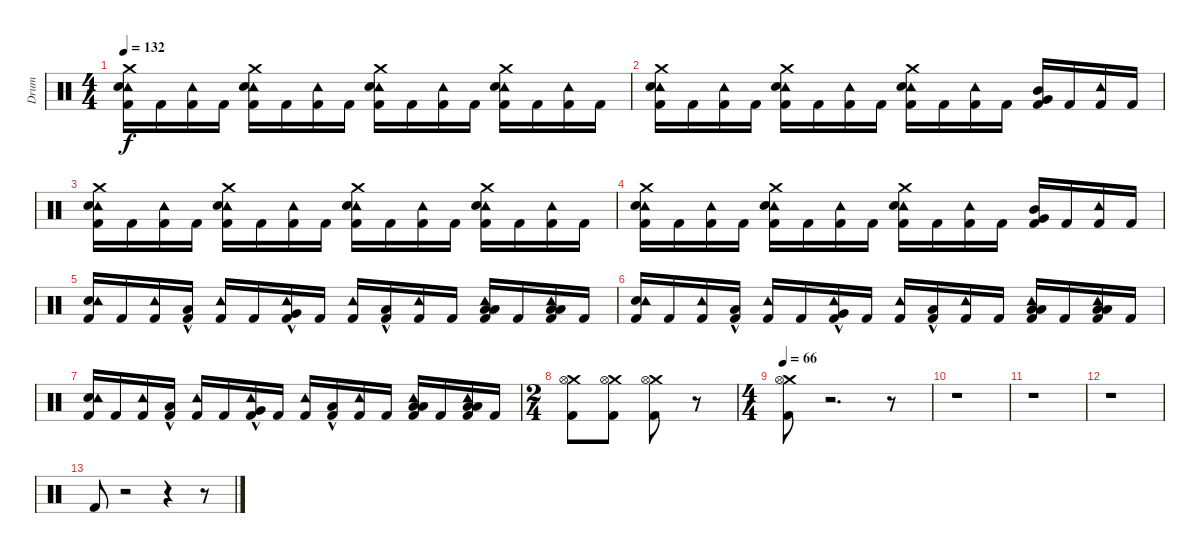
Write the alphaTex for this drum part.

\track (" Drum" " Drum") {instrument percussion}
\staff {score}
\articulation defaults
\ts (4 4)
\tempo 132
\clef neutral
\ks c
("Crash medium (hit)" "Tambourine (hit)" "Electric Snare (hit)" "Kick (hit) 2").16{dy f} "Kick (hit) 2".16 ("Tambourine (hit)" "Kick (hit) 2").16 "Kick (hit) 2".16 ("Crash medium (hit)" "Tambourine (hit)" "Electric Snare (hit)" "Kick (hit) 2").16 "Kick (hit) 2".16 ("Tambourine (hit)" "Kick (hit) 2").16 "Kick (hit) 2".16 ("Crash medium (hit)" "Tambourine (hit)" "Electric Snare (hit)" "Kick (hit) 2").16 "Kick (hit) 2".16 ("Tambourine (hit)" "Kick (hit) 2").16 "Kick (hit) 2".16 ("Crash medium (hit)" "Tambourine (hit)" "Electric Snare (hit)" "Kick (hit) 2").16 "Kick (hit) 2".16 ("Tambourine (hit)" "Kick (hit) 2").16 "Kick (hit) 2".16 |
("Crash medium (hit)" "Tambourine (hit)" "Electric Snare (hit)" "Kick (hit) 2").16 "Kick (hit) 2".16 ("Tambourine (hit)" "Kick (hit) 2").16 "Kick (hit) 2".16 ("Crash medium (hit)" "Tambourine (hit)" "Electric Snare (hit)" "Kick (hit) 2").16 "Kick (hit) 2".16 ("Tambourine (hit)" "Kick (hit) 2").16 "Kick (hit) 2".16 ("Crash medium (hit)" "Tambourine (hit)" "Electric Snare (hit)" "Kick (hit) 2").16 "Kick (hit) 2".16 ("Tambourine (hit)" "Kick (hit) 2").16 "Kick (hit) 2".16 ("Very Low Tom (hit)" "Mid Tom (hit)" "Kick (hit) 2").16 "Kick (hit) 2".16 ("Tambourine (hit)" "Kick (hit) 2").16 "Kick (hit) 2".16 |
("Crash medium (hit)" "Tambourine (hit)" "Electric Snare (hit)" "Kick (hit) 2").16 "Kick (hit) 2".16 ("Tambourine (hit)" "Kick (hit) 2").16 "Kick (hit) 2".16 ("Crash medium (hit)" "Tambourine (hit)" "Electric Snare (hit)" "Kick (hit) 2").16 "Kick (hit) 2".16 ("Tambourine (hit)" "Kick (hit) 2").16 "Kick (hit) 2".16 ("Crash medium (hit)" "Tambourine (hit)" "Electric Snare (hit)" "Kick (hit) 2").16 "Kick (hit) 2".16 ("Tambourine (hit)" "Kick (hit) 2").16 "Kick (hit) 2".16 ("Crash medium (hit)" "Tambourine (hit)" "Electric Snare (hit)" "Kick (hit) 2").16 "Kick (hit) 2".16 ("Tambourine (hit)" "Kick (hit) 2").16 "Kick (hit) 2".16 |
("Crash medium (hit)" "Tambourine (hit)" "Electric Snare (hit)" "Kick (hit) 2").16 "Kick (hit) 2".16 ("Tambourine (hit)" "Kick (hit) 2").16 "Kick (hit) 2".16 ("Crash medium (hit)" "Tambourine (hit)" "Electric Snare (hit)" "Kick (hit) 2").16 "Kick (hit) 2".16 ("Tambourine (hit)" "Kick (hit) 2").16 "Kick (hit) 2".16 ("Crash medium (hit)" "Tambourine (hit)" "Electric Snare (hit)" "Kick (hit) 2").16 "Kick (hit) 2".16 ("Tambourine (hit)" "Kick (hit) 2").16 "Kick (hit) 2".16 ("Mid Tom (hit)" "Very Low Tom (hit)" "Kick (hit) 2").16 "Kick (hit) 2".16 ("Tambourine (hit)" "Kick (hit) 2").16 "Kick (hit) 2".16 |
("Electric Snare (hit)" "Tambourine (hit)" "Kick (hit) 2").16 "Kick (hit) 2".16 ("Tambourine (hit)" "Kick (hit) 2").16 ("Low Tom (hit)"{hac} "Kick (hit) 2").16 ("Tambourine (hit)" "Kick (hit) 2").16 "Kick (hit) 2".16 ("Very Low Tom (hit)"{hac} "Tambourine (hit)" "Kick (hit) 2").16 "Kick (hit) 2".16 ("Tambourine (hit)" "Kick (hit) 2").16 ("Low Floor Tom (hit)"{hac} "Kick (hit) 2").16 ("Tambourine (hit)" "Kick (hit) 2").16 "Kick (hit) 2".16 ("Low Tom (hit)" "Low Floor Tom (hit)" "Tambourine (hit)" "Kick (hit) 2").16 "Kick (hit) 2".16 ("Low Tom (hit)" "Low Floor Tom (hit)" "Tambourine (hit)" "Kick (hit) 2").16 "Kick (hit) 2".16 |
("Electric Snare (hit)" "Tambourine (hit)" "Kick (hit) 2").16 "Kick (hit) 2".16 ("Tambourine (hit)" "Kick (hit) 2").16 ("Low Tom (hit)"{hac} "Kick (hit) 2").16 ("Tambourine (hit)" "Kick (hit) 2").16 "Kick (hit) 2".16 ("Very Low Tom (hit)"{hac} "Tambourine (hit)" "Kick (hit) 2").16 "Kick (hit) 2".16 ("Tambourine (hit)" "Kick (hit) 2").16 ("Low Floor Tom (hit)"{hac} "Kick (hit) 2").16 ("Tambourine (hit)" "Kick (hit) 2").16 "Kick (hit) 2".16 ("Low Tom (hit)" "Low Floor Tom (hit)" "Tambourine (hit)" "Kick (hit) 2").16 "Kick (hit) 2".16 ("Low Tom (hit)" "Low Floor Tom (hit)" "Tambourine (hit)" "Kick (hit) 2").16 "Kick (hit) 2".16 |
("Electric Snare (hit)" "Tambourine (hit)" "Kick (hit) 2").16 "Kick (hit) 2".16 ("Tambourine (hit)" "Kick (hit) 2").16 ("Low Tom (hit)"{hac} "Kick (hit) 2").16 ("Tambourine (hit)" "Kick (hit) 2").16 "Kick (hit) 2".16 ("Very Low Tom (hit)"{hac} "Tambourine (hit)" "Kick (hit) 2").16 "Kick (hit) 2".16 ("Tambourine (hit)" "Kick (hit) 2").16 ("Low Floor Tom (hit)"{hac} "Kick (hit) 2").16 ("Tambourine (hit)" "Kick (hit) 2").16 "Kick (hit) 2".16 ("Low Tom (hit)" "Low Floor Tom (hit)" "Tambourine (hit)" "Kick (hit) 2").16 "Kick (hit) 2".16 ("Low Tom (hit)" "Low Floor Tom (hit)" "Tambourine (hit)" "Kick (hit) 2").16 "Kick (hit) 2".16 |
\ts (2 4)
("Crash medium (hit)" "Hi-Hat (open)" "Kick (hit) 2").8 ("Crash medium (hit)" "Hi-Hat (open)" "Kick (hit) 2").8 ("Crash medium (hit)" "Hi-Hat (open)" "Kick (hit) 2").8 r.8 |
\ts (4 4)
\tempo 66
("Crash medium (hit)" "Hi-Hat (open)" "Kick (hit) 2").8 r.2{d} r.8 |
r.1 |
r.1 |
r.1 |
"Kick (hit) 2".8 r.2 r.4 r.8
